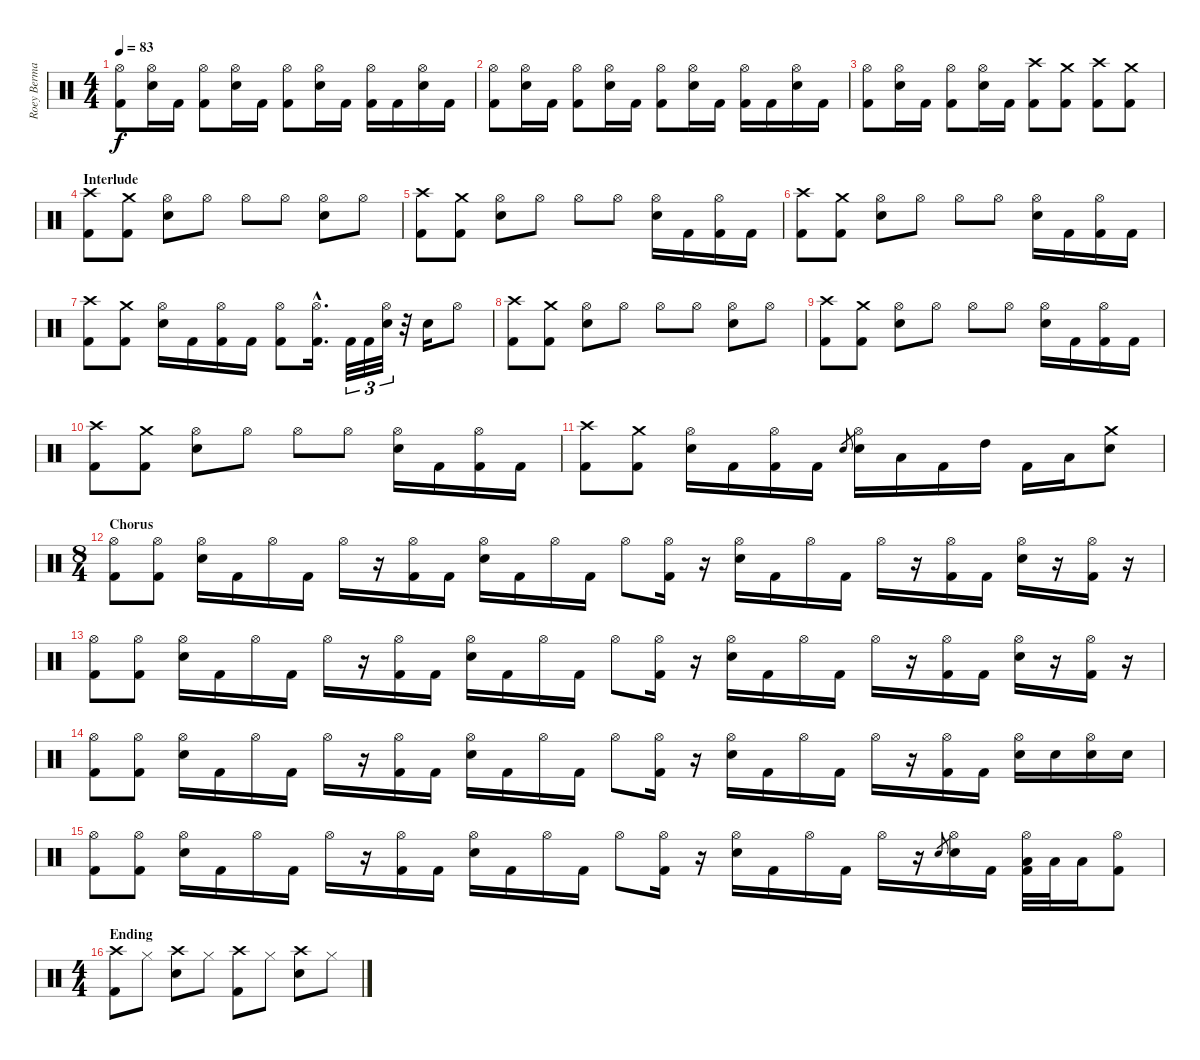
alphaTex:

\track ("Roey Berman" "Roey Berma") {instrument percussion}
\staff {score}
\articulation defaults
\ts (4 4)
\tempo 83
\clef neutral
\ks c
("Hi-Hat (open)" "Kick (hit) 2").8{dy f} ("Hi-Hat (open)" "Electric Snare (hit)").16 "Kick (hit) 2".16 ("Hi-Hat (open)" "Kick (hit) 2").8 ("Hi-Hat (open)" "Electric Snare (hit)").16 "Kick (hit) 2".16 ("Hi-Hat (open)" "Kick (hit) 2").8 ("Hi-Hat (open)" "Electric Snare (hit)").16 "Kick (hit) 2".16 ("Hi-Hat (open)" "Kick (hit) 2").16 "Kick (hit) 2".16 ("Hi-Hat (open)" "Electric Snare (hit)").16 "Kick (hit) 2".16 |
("Hi-Hat (open)" "Kick (hit) 2").8 ("Hi-Hat (open)" "Electric Snare (hit)").16 "Kick (hit) 2".16 ("Hi-Hat (open)" "Kick (hit) 2").8 ("Hi-Hat (open)" "Electric Snare (hit)").16 "Kick (hit) 2".16 ("Hi-Hat (open)" "Kick (hit) 2").8 ("Hi-Hat (open)" "Electric Snare (hit)").16 "Kick (hit) 2".16 ("Hi-Hat (open)" "Kick (hit) 2").16 "Kick (hit) 2".16 ("Hi-Hat (open)" "Electric Snare (hit)").16 "Kick (hit) 2".16 |
("Hi-Hat (open)" "Kick (hit) 2").8 ("Hi-Hat (open)" "Electric Snare (hit)").16 "Kick (hit) 2".16 ("Hi-Hat (open)" "Kick (hit) 2").8 ("Hi-Hat (open)" "Electric Snare (hit)").16 "Kick (hit) 2".16 ("Crash high (hit)" "Kick (hit) 2").8 ("Crash medium (hit)" "Kick (hit) 2").8 ("Crash high (hit)" "Kick (hit) 2").8 ("Crash medium (hit)" "Kick (hit) 2").8 |
\section ("" "Interlude")
("Crash high (hit)" "Kick (hit) 2").8 ("Crash medium (hit)" "Kick (hit) 2").8 ("Hi-Hat (open)" "Electric Snare (hit)").8 "Hi-Hat (open)".8 "Hi-Hat (open)".8 "Hi-Hat (open)".8 ("Hi-Hat (open)" "Electric Snare (hit)").8 "Hi-Hat (open)".8 |
("Crash high (hit)" "Kick (hit) 2").8 ("Crash medium (hit)" "Kick (hit) 2").8 ("Hi-Hat (open)" "Electric Snare (hit)").8 "Hi-Hat (open)".8 "Hi-Hat (open)".8 "Hi-Hat (open)".8 ("Hi-Hat (open)" "Electric Snare (hit)").16 "Kick (hit) 2".16 ("Hi-Hat (open)" "Kick (hit) 2").16 "Kick (hit) 2".16 |
("Crash high (hit)" "Kick (hit) 2").8 ("Crash medium (hit)" "Kick (hit) 2").8 ("Hi-Hat (open)" "Electric Snare (hit)").8 "Hi-Hat (open)".8 "Hi-Hat (open)".8 "Hi-Hat (open)".8 ("Hi-Hat (open)" "Electric Snare (hit)").16 "Kick (hit) 2".16 ("Hi-Hat (open)" "Kick (hit) 2").16 "Kick (hit) 2".16 |
("Crash high (hit)" "Kick (hit) 2").8 ("Crash medium (hit)" "Kick (hit) 2").8 ("Hi-Hat (open)" "Electric Snare (hit)").16 "Kick (hit) 2".16 ("Hi-Hat (open)" "Kick (hit) 2").16 "Kick (hit) 2".16 ("Hi-Hat (open)" "Kick (hit) 2").8 ("Hi-Hat (open)"{hac} "Kick (hit) 2"{hac}).16{d} "Kick (hit) 2".32{tu (3 2)} "Kick (hit) 2".32{tu (3 2)} ("Hi-Hat (open)" "Electric Snare (hit)").32{tu (3 2)} r.32 "Electric Snare (hit)".16 "Hi-Hat (open)".8 |
\section ("" "")
("Crash high (hit)" "Kick (hit) 2").8 ("Crash medium (hit)" "Kick (hit) 2").8 ("Hi-Hat (open)" "Electric Snare (hit)").8 "Hi-Hat (open)".8 "Hi-Hat (open)".8 "Hi-Hat (open)".8 ("Hi-Hat (open)" "Electric Snare (hit)").8 "Hi-Hat (open)".8 |
("Crash high (hit)" "Kick (hit) 2").8 ("Crash medium (hit)" "Kick (hit) 2").8 ("Hi-Hat (open)" "Electric Snare (hit)").8 "Hi-Hat (open)".8 "Hi-Hat (open)".8 "Hi-Hat (open)".8 ("Hi-Hat (open)" "Electric Snare (hit)").16 "Kick (hit) 2".16 ("Hi-Hat (open)" "Kick (hit) 2").16 "Kick (hit) 2".16 |
("Crash high (hit)" "Kick (hit) 2").8 ("Crash medium (hit)" "Kick (hit) 2").8 ("Hi-Hat (open)" "Electric Snare (hit)").8 "Hi-Hat (open)".8 "Hi-Hat (open)".8 "Hi-Hat (open)".8 ("Hi-Hat (open)" "Electric Snare (hit)").16 "Kick (hit) 2".16 ("Hi-Hat (open)" "Kick (hit) 2").16 "Kick (hit) 2".16 |
("Crash high (hit)" "Kick (hit) 2").8 ("Crash medium (hit)" "Kick (hit) 2").8 ("Hi-Hat (open)" "Electric Snare (hit)").16 "Kick (hit) 2".16 ("Hi-Hat (open)" "Kick (hit) 2").16 "Kick (hit) 2".16 "Electric Snare (hit)".8{gr} ("Hi-Hat (open)" "Electric Snare (hit)").16 "Low Tom (hit)".16 "Kick (hit) 2".16 "High Tom (hit)".16 "Kick (hit) 2".16 "Low Tom (hit)".16 ("Crash medium (hit)" "Electric Snare (hit)").8 |
\ts (8 4)
\section ("" "Chorus")
("Hi-Hat (open)" "Kick (hit) 2").8 ("Hi-Hat (open)" "Kick (hit) 2").8 ("Hi-Hat (open)" "Electric Snare (hit)").16 "Kick (hit) 2".16 "Hi-Hat (open)".16 "Kick (hit) 2".16 "Hi-Hat (open)".16 r.16 ("Hi-Hat (open)" "Kick (hit) 2").16 "Kick (hit) 2".16 ("Hi-Hat (open)" "Electric Snare (hit)").16 "Kick (hit) 2".16 "Hi-Hat (open)".16 "Kick (hit) 2".16 "Hi-Hat (open)".8 ("Hi-Hat (open)" "Kick (hit) 2").16 r.16 ("Hi-Hat (open)" "Electric Snare (hit)").16 "Kick (hit) 2".16 "Hi-Hat (open)".16 "Kick (hit) 2".16 "Hi-Hat (open)".16 r.16 ("Hi-Hat (open)" "Kick (hit) 2").16 "Kick (hit) 2".16 ("Hi-Hat (open)" "Electric Snare (hit)").16 r.16 ("Hi-Hat (open)" "Kick (hit) 2").16 r.16 |
("Hi-Hat (open)" "Kick (hit) 2").8 ("Hi-Hat (open)" "Kick (hit) 2").8 ("Hi-Hat (open)" "Electric Snare (hit)").16 "Kick (hit) 2".16 "Hi-Hat (open)".16 "Kick (hit) 2".16 "Hi-Hat (open)".16 r.16 ("Hi-Hat (open)" "Kick (hit) 2").16 "Kick (hit) 2".16 ("Hi-Hat (open)" "Electric Snare (hit)").16 "Kick (hit) 2".16 "Hi-Hat (open)".16 "Kick (hit) 2".16 "Hi-Hat (open)".8 ("Hi-Hat (open)" "Kick (hit) 2").16 r.16 ("Hi-Hat (open)" "Electric Snare (hit)").16 "Kick (hit) 2".16 "Hi-Hat (open)".16 "Kick (hit) 2".16 "Hi-Hat (open)".16 r.16 ("Hi-Hat (open)" "Kick (hit) 2").16 "Kick (hit) 2".16 ("Hi-Hat (open)" "Electric Snare (hit)").16 r.16 ("Hi-Hat (open)" "Kick (hit) 2").16 r.16 |
("Hi-Hat (open)" "Kick (hit) 2").8 ("Hi-Hat (open)" "Kick (hit) 2").8 ("Hi-Hat (open)" "Electric Snare (hit)").16 "Kick (hit) 2".16 "Hi-Hat (open)".16 "Kick (hit) 2".16 "Hi-Hat (open)".16 r.16 ("Hi-Hat (open)" "Kick (hit) 2").16 "Kick (hit) 2".16 ("Hi-Hat (open)" "Electric Snare (hit)").16 "Kick (hit) 2".16 "Hi-Hat (open)".16 "Kick (hit) 2".16 "Hi-Hat (open)".8 ("Hi-Hat (open)" "Kick (hit) 2").16 r.16 ("Hi-Hat (open)" "Electric Snare (hit)").16 "Kick (hit) 2".16 "Hi-Hat (open)".16 "Kick (hit) 2".16 "Hi-Hat (open)".16 r.16 ("Hi-Hat (open)" "Kick (hit) 2").16 "Kick (hit) 2".16 ("Hi-Hat (open)" "Electric Snare (hit)").16 "Electric Snare (hit)".16 ("Hi-Hat (open)" "Electric Snare (hit)").16 "Electric Snare (hit)".16 |
("Hi-Hat (open)" "Kick (hit) 2").8 ("Hi-Hat (open)" "Kick (hit) 2").8 ("Hi-Hat (open)" "Electric Snare (hit)").16 "Kick (hit) 2".16 "Hi-Hat (open)".16 "Kick (hit) 2".16 "Hi-Hat (open)".16 r.16 ("Hi-Hat (open)" "Kick (hit) 2").16 "Kick (hit) 2".16 ("Hi-Hat (open)" "Electric Snare (hit)").16 "Kick (hit) 2".16 "Hi-Hat (open)".16 "Kick (hit) 2".16 "Hi-Hat (open)".8 ("Hi-Hat (open)" "Kick (hit) 2").16 r.16 ("Hi-Hat (open)" "Electric Snare (hit)").16 "Kick (hit) 2".16 "Hi-Hat (open)".16 "Kick (hit) 2".16 "Hi-Hat (open)".16 r.16 "Electric Snare (hit)".8{gr} ("Hi-Hat (open)" "Electric Snare (hit)").16 "Kick (hit) 2".16 ("Hi-Hat (open)" "Low Tom (hit)" "Kick (hit) 2").32 "Low Tom (hit)".32 "Low Tom (hit)".16 ("Hi-Hat (open)" "Kick (hit) 2").8 |
\ts (4 4)
\section ("" "Ending")
("Crash high (hit)" "Kick (hit) 2").8 "Hi-Hat (closed)".8 ("Crash high (hit)" "Electric Snare (hit)").8 "Hi-Hat (closed)".8 ("Crash high (hit)" "Kick (hit) 2").8 "Hi-Hat (closed)".8 ("Crash high (hit)" "Electric Snare (hit)").8 "Hi-Hat (closed)".8
